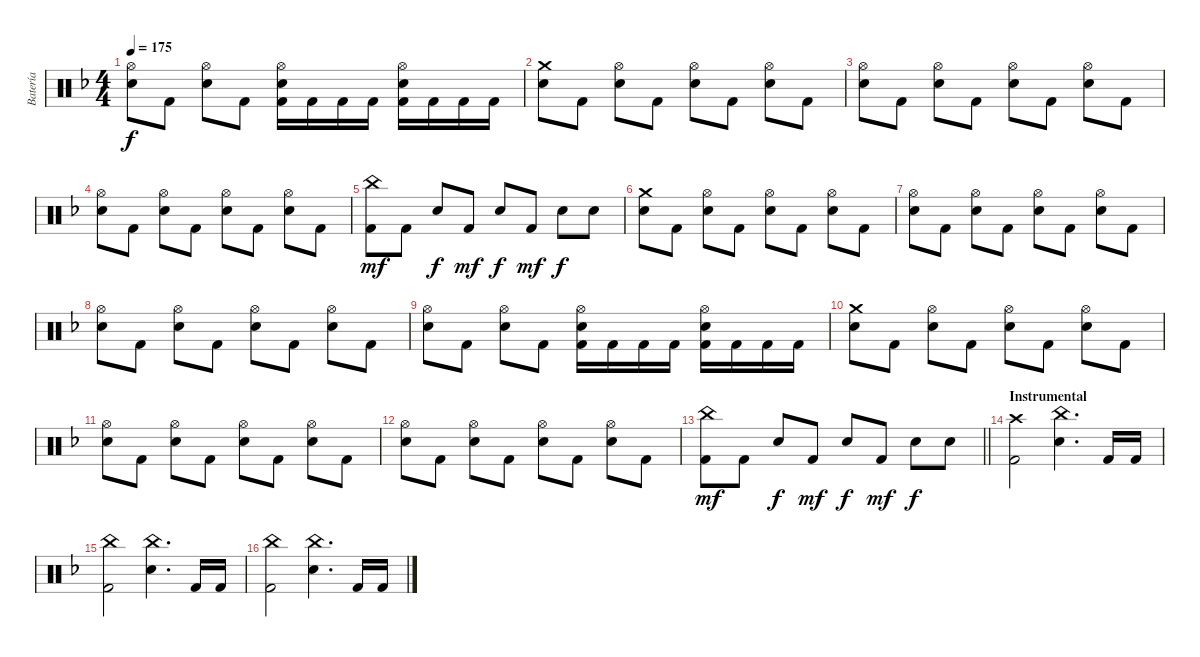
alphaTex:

\track ("Batería" "Batería") {instrument percussion}
\staff {score}
\articulation defaults
\ts (4 4)
\tempo 175
\clef neutral
\ks dminor
("Hi-Hat (open)" "Snare (hit) 2").8{dy f} "Kick (hit) 2".8 ("Hi-Hat (open)" "Snare (hit) 2").8 "Kick (hit) 2".8 ("Hi-Hat (open)" "Snare (hit) 2" "Kick (hit) 2").16 "Kick (hit) 2".16 "Kick (hit) 2".16 "Kick (hit) 2".16 ("Hi-Hat (open)" "Snare (hit) 2" "Kick (hit) 2").16 "Kick (hit) 2".16 "Kick (hit) 2".16 "Kick (hit) 2".16 |
("Crash medium (hit)" "Snare (hit) 2").8 "Kick (hit) 2".8 ("Hi-Hat (open)" "Snare (hit) 2").8 "Kick (hit) 2".8 ("Hi-Hat (open)" "Snare (hit) 2").8 "Kick (hit) 2".8 ("Hi-Hat (open)" "Snare (hit) 2").8 "Kick (hit) 2".8 |
("Hi-Hat (open)" "Snare (hit) 2").8 "Kick (hit) 2".8 ("Hi-Hat (open)" "Snare (hit) 2").8 "Kick (hit) 2".8 ("Hi-Hat (open)" "Snare (hit) 2").8 "Kick (hit) 2".8 ("Hi-Hat (open)" "Snare (hit) 2").8 "Kick (hit) 2".8 |
("Hi-Hat (open)" "Snare (hit) 2").8 "Kick (hit) 2".8 ("Hi-Hat (open)" "Snare (hit) 2").8 "Kick (hit) 2".8 ("Hi-Hat (open)" "Snare (hit) 2").8 "Kick (hit) 2".8 ("Hi-Hat (open)" "Snare (hit) 2").8 "Kick (hit) 2".8 |
("China (hit)" "Kick (hit) 2").8{dy mf} "Kick (hit) 2".8 "Snare (hit) 2".8{dy f} "Kick (hit) 2".8{dy mf} "Snare (hit) 2".8{dy f} "Kick (hit) 2".8{dy mf} "Snare (hit) 2".8{dy f} "Snare (hit) 2".8 |
("Crash medium (hit)" "Snare (hit) 2").8 "Kick (hit) 2".8 ("Hi-Hat (open)" "Snare (hit) 2").8 "Kick (hit) 2".8 ("Hi-Hat (open)" "Snare (hit) 2").8 "Kick (hit) 2".8 ("Hi-Hat (open)" "Snare (hit) 2").8 "Kick (hit) 2".8 |
("Hi-Hat (open)" "Snare (hit) 2").8 "Kick (hit) 2".8 ("Hi-Hat (open)" "Snare (hit) 2").8 "Kick (hit) 2".8 ("Hi-Hat (open)" "Snare (hit) 2").8 "Kick (hit) 2".8 ("Hi-Hat (open)" "Snare (hit) 2").8 "Kick (hit) 2".8 |
("Hi-Hat (open)" "Snare (hit) 2").8 "Kick (hit) 2".8 ("Hi-Hat (open)" "Snare (hit) 2").8 "Kick (hit) 2".8 ("Hi-Hat (open)" "Snare (hit) 2").8 "Kick (hit) 2".8 ("Hi-Hat (open)" "Snare (hit) 2").8 "Kick (hit) 2".8 |
("Hi-Hat (open)" "Snare (hit) 2").8 "Kick (hit) 2".8 ("Hi-Hat (open)" "Snare (hit) 2").8 "Kick (hit) 2".8 ("Hi-Hat (open)" "Snare (hit) 2" "Kick (hit) 2").16 "Kick (hit) 2".16 "Kick (hit) 2".16 "Kick (hit) 2".16 ("Hi-Hat (open)" "Snare (hit) 2" "Kick (hit) 2").16 "Kick (hit) 2".16 "Kick (hit) 2".16 "Kick (hit) 2".16 |
("Crash medium (hit)" "Snare (hit) 2").8 "Kick (hit) 2".8 ("Hi-Hat (open)" "Snare (hit) 2").8 "Kick (hit) 2".8 ("Hi-Hat (open)" "Snare (hit) 2").8 "Kick (hit) 2".8 ("Hi-Hat (open)" "Snare (hit) 2").8 "Kick (hit) 2".8 |
("Hi-Hat (open)" "Snare (hit) 2").8 "Kick (hit) 2".8 ("Hi-Hat (open)" "Snare (hit) 2").8 "Kick (hit) 2".8 ("Hi-Hat (open)" "Snare (hit) 2").8 "Kick (hit) 2".8 ("Hi-Hat (open)" "Snare (hit) 2").8 "Kick (hit) 2".8 |
("Hi-Hat (open)" "Snare (hit) 2").8 "Kick (hit) 2".8 ("Hi-Hat (open)" "Snare (hit) 2").8 "Kick (hit) 2".8 ("Hi-Hat (open)" "Snare (hit) 2").8 "Kick (hit) 2".8 ("Hi-Hat (open)" "Snare (hit) 2").8 "Kick (hit) 2".8 |
\barLineRight lightlight
("China (hit)" "Kick (hit) 2").8{dy mf} "Kick (hit) 2".8 "Snare (hit) 2".8{dy f} "Kick (hit) 2".8{dy mf} "Snare (hit) 2".8{dy f} "Kick (hit) 2".8{dy mf} "Snare (hit) 2".8{dy f} "Snare (hit) 2".8 |
\section ("" "Instrumental")
("Crash high (hit)" "Kick (hit) 2").2 ("China (hit)" "Snare (hit) 2").4{d} "Kick (hit) 2".16 "Kick (hit) 2".16 |
("China (hit)" "Kick (hit) 2").2 ("China (hit)" "Snare (hit) 2").4{d} "Kick (hit) 2".16 "Kick (hit) 2".16 |
("China (hit)" "Kick (hit) 2").2 ("China (hit)" "Snare (hit) 2").4{d} "Kick (hit) 2".16 "Kick (hit) 2".16
